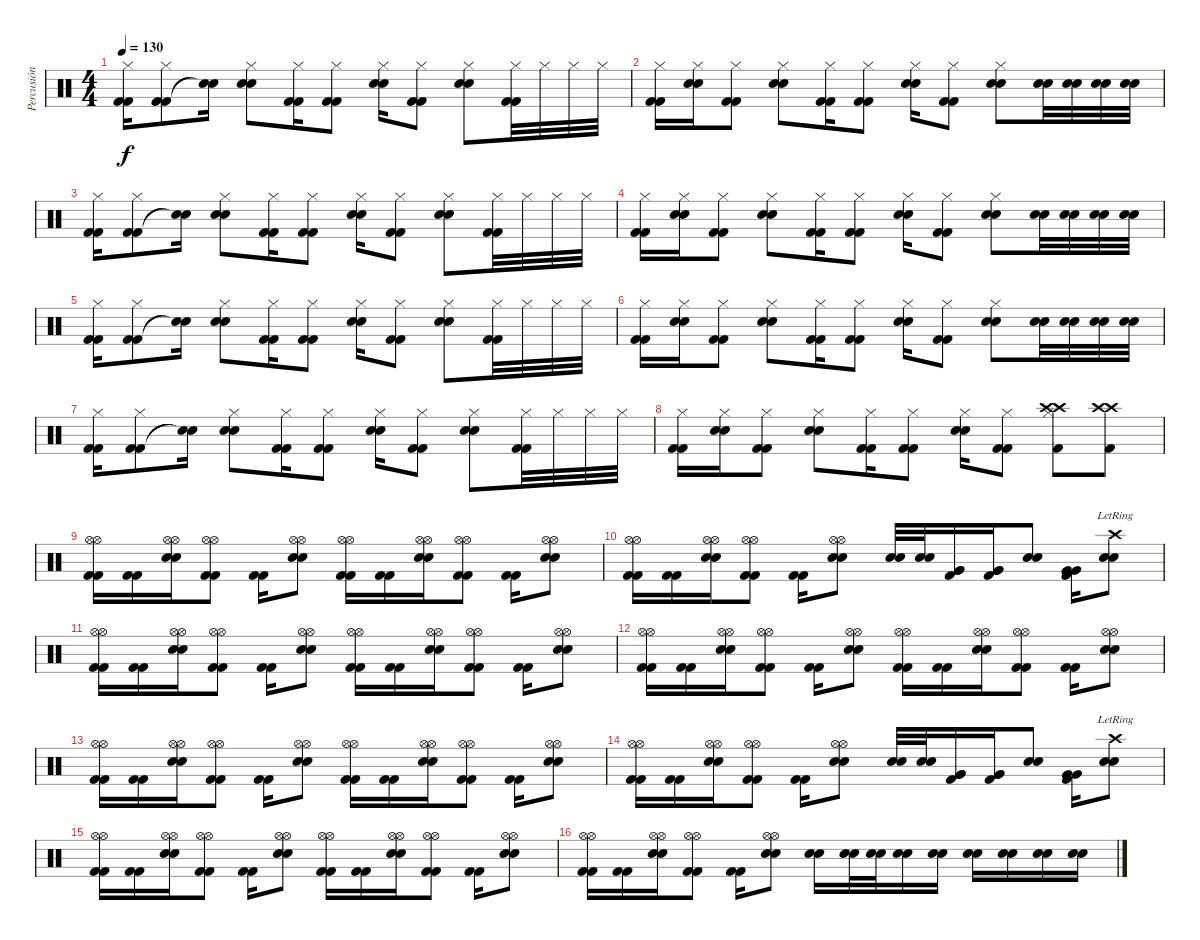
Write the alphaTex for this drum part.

\track ("Percusión" "Percusión") {instrument percussion}
\staff {score}
\articulation defaults
\ts (4 4)
\tempo 130
\clef neutral
\ks c
("Kick (hit) 2" "Kick (hit) 2" "Hi-Hat (closed)").16{dy f} ("Kick (hit) 2" "Kick (hit) 2" "Hi-Hat (closed)").8 ("Snare (hit) 2"{t} "Snare (hit) 2"{t}).16 ("Snare (hit) 2" "Snare (hit) 2" "Hi-Hat (closed)").8 ("Kick (hit) 2" "Kick (hit) 2" "Hi-Hat (closed)").16 ("Kick (hit) 2" "Kick (hit) 2" "Hi-Hat (closed)").8 ("Snare (hit) 2" "Snare (hit) 2" "Hi-Hat (closed)").16 ("Kick (hit) 2" "Kick (hit) 2" "Hi-Hat (closed)").8 ("Snare (hit) 2" "Snare (hit) 2" "Hi-Hat (closed)").8 ("Kick (hit) 2" "Kick (hit) 2" "Hi-Hat (closed)").32 "Hi-Hat (closed)".32 "Hi-Hat (closed)".32 "Hi-Hat (closed)".32 |
("Kick (hit) 2" "Kick (hit) 2" "Hi-Hat (closed)").16 ("Snare (hit) 2" "Snare (hit) 2" "Hi-Hat (closed)").16 ("Kick (hit) 2" "Kick (hit) 2" "Hi-Hat (closed)").8 ("Snare (hit) 2" "Snare (hit) 2" "Hi-Hat (closed)").8 ("Kick (hit) 2" "Kick (hit) 2" "Hi-Hat (closed)").16 ("Kick (hit) 2" "Kick (hit) 2" "Hi-Hat (closed)").8 ("Snare (hit) 2" "Snare (hit) 2" "Hi-Hat (closed)").16 ("Kick (hit) 2" "Kick (hit) 2" "Hi-Hat (closed)").8 ("Snare (hit) 2" "Snare (hit) 2" "Hi-Hat (closed)").8 ("Snare (hit) 2" "Snare (hit) 2").32 ("Snare (hit) 2" "Snare (hit) 2").32 ("Snare (hit) 2" "Snare (hit) 2").32 ("Snare (hit) 2" "Snare (hit) 2").32 |
("Kick (hit) 2" "Kick (hit) 2" "Hi-Hat (closed)").16 ("Kick (hit) 2" "Kick (hit) 2" "Hi-Hat (closed)").8 ("Snare (hit) 2"{t} "Snare (hit) 2"{t}).16 ("Snare (hit) 2" "Snare (hit) 2" "Hi-Hat (closed)").8 ("Kick (hit) 2" "Kick (hit) 2" "Hi-Hat (closed)").16 ("Kick (hit) 2" "Kick (hit) 2" "Hi-Hat (closed)").8 ("Snare (hit) 2" "Snare (hit) 2" "Hi-Hat (closed)").16 ("Kick (hit) 2" "Kick (hit) 2" "Hi-Hat (closed)").8 ("Snare (hit) 2" "Snare (hit) 2" "Hi-Hat (closed)").8 ("Kick (hit) 2" "Kick (hit) 2" "Hi-Hat (closed)").32 "Hi-Hat (closed)".32 "Hi-Hat (closed)".32 "Hi-Hat (closed)".32 |
("Kick (hit) 2" "Kick (hit) 2" "Hi-Hat (closed)").16 ("Snare (hit) 2" "Snare (hit) 2" "Hi-Hat (closed)").16 ("Kick (hit) 2" "Kick (hit) 2" "Hi-Hat (closed)").8 ("Snare (hit) 2" "Snare (hit) 2" "Hi-Hat (closed)").8 ("Kick (hit) 2" "Kick (hit) 2" "Hi-Hat (closed)").16 ("Kick (hit) 2" "Kick (hit) 2" "Hi-Hat (closed)").8 ("Snare (hit) 2" "Snare (hit) 2" "Hi-Hat (closed)").16 ("Kick (hit) 2" "Kick (hit) 2" "Hi-Hat (closed)").8 ("Snare (hit) 2" "Snare (hit) 2" "Hi-Hat (closed)").8 ("Snare (hit) 2" "Snare (hit) 2").32 ("Snare (hit) 2" "Snare (hit) 2").32 ("Snare (hit) 2" "Snare (hit) 2").32 ("Snare (hit) 2" "Snare (hit) 2").32 |
("Kick (hit) 2" "Kick (hit) 2" "Hi-Hat (closed)").16 ("Kick (hit) 2" "Kick (hit) 2" "Hi-Hat (closed)").8 ("Snare (hit) 2"{t} "Snare (hit) 2"{t}).16 ("Snare (hit) 2" "Snare (hit) 2" "Hi-Hat (closed)").8 ("Kick (hit) 2" "Kick (hit) 2" "Hi-Hat (closed)").16 ("Kick (hit) 2" "Kick (hit) 2" "Hi-Hat (closed)").8 ("Snare (hit) 2" "Snare (hit) 2" "Hi-Hat (closed)").16 ("Kick (hit) 2" "Kick (hit) 2" "Hi-Hat (closed)").8 ("Snare (hit) 2" "Snare (hit) 2" "Hi-Hat (closed)").8 ("Kick (hit) 2" "Kick (hit) 2" "Hi-Hat (closed)").32 "Hi-Hat (closed)".32 "Hi-Hat (closed)".32 "Hi-Hat (closed)".32 |
("Kick (hit) 2" "Kick (hit) 2" "Hi-Hat (closed)").16 ("Snare (hit) 2" "Snare (hit) 2" "Hi-Hat (closed)").16 ("Kick (hit) 2" "Kick (hit) 2" "Hi-Hat (closed)").8 ("Snare (hit) 2" "Snare (hit) 2" "Hi-Hat (closed)").8 ("Kick (hit) 2" "Kick (hit) 2" "Hi-Hat (closed)").16 ("Kick (hit) 2" "Kick (hit) 2" "Hi-Hat (closed)").8 ("Snare (hit) 2" "Snare (hit) 2" "Hi-Hat (closed)").16 ("Kick (hit) 2" "Kick (hit) 2" "Hi-Hat (closed)").8 ("Snare (hit) 2" "Snare (hit) 2" "Hi-Hat (closed)").8 ("Snare (hit) 2" "Snare (hit) 2").32 ("Snare (hit) 2" "Snare (hit) 2").32 ("Snare (hit) 2" "Snare (hit) 2").32 ("Snare (hit) 2" "Snare (hit) 2").32 |
("Kick (hit) 2" "Kick (hit) 2" "Hi-Hat (closed)").16 ("Kick (hit) 2" "Kick (hit) 2" "Hi-Hat (closed)").8 ("Snare (hit) 2"{t} "Snare (hit) 2"{t}).16 ("Snare (hit) 2" "Snare (hit) 2" "Hi-Hat (closed)").8 ("Kick (hit) 2" "Kick (hit) 2" "Hi-Hat (closed)").16 ("Kick (hit) 2" "Kick (hit) 2" "Hi-Hat (closed)").8 ("Snare (hit) 2" "Snare (hit) 2" "Hi-Hat (closed)").16 ("Kick (hit) 2" "Kick (hit) 2" "Hi-Hat (closed)").8 ("Snare (hit) 2" "Snare (hit) 2" "Hi-Hat (closed)").8 ("Kick (hit) 2" "Kick (hit) 2" "Hi-Hat (closed)").32 "Hi-Hat (closed)".32 "Hi-Hat (closed)".32 "Hi-Hat (closed)".32 |
("Kick (hit) 2" "Kick (hit) 2" "Hi-Hat (closed)").16 ("Snare (hit) 2" "Snare (hit) 2" "Hi-Hat (closed)").16 ("Kick (hit) 2" "Kick (hit) 2" "Hi-Hat (closed)").8 ("Snare (hit) 2" "Snare (hit) 2" "Hi-Hat (closed)").8 ("Kick (hit) 2" "Kick (hit) 2" "Hi-Hat (closed)").16 ("Kick (hit) 2" "Kick (hit) 2" "Hi-Hat (closed)").8 ("Snare (hit) 2" "Snare (hit) 2" "Hi-Hat (closed)").16 ("Kick (hit) 2" "Kick (hit) 2" "Hi-Hat (closed)").8 ("Crash high (hit)" "Crash high (hit)" "Hi-Hat (closed)" "Kick (hit) 2").8 ("Crash high (hit)" "Crash high (hit)" "Kick (hit) 2").8 |
("Kick (hit) 2" "Kick (hit) 2" "Hi-Hat (open)" "Hi-Hat (open)").16 ("Kick (hit) 2" "Kick (hit) 2").16 ("Snare (hit) 2" "Snare (hit) 2" "Hi-Hat (open)" "Hi-Hat (open)").16 ("Kick (hit) 2" "Kick (hit) 2" "Hi-Hat (open)" "Hi-Hat (open)").8 ("Kick (hit) 2" "Kick (hit) 2").16 ("Snare (hit) 2" "Snare (hit) 2" "Hi-Hat (open)" "Hi-Hat (open)").8 ("Kick (hit) 2" "Kick (hit) 2" "Hi-Hat (open)" "Hi-Hat (open)").16 ("Kick (hit) 2" "Kick (hit) 2").16 ("Snare (hit) 2" "Snare (hit) 2" "Hi-Hat (open)" "Hi-Hat (open)").16 ("Kick (hit) 2" "Kick (hit) 2" "Hi-Hat (open)" "Hi-Hat (open)").8 ("Kick (hit) 2" "Kick (hit) 2").16 ("Snare (hit) 2" "Snare (hit) 2" "Hi-Hat (open)" "Hi-Hat (open)").8 |
("Kick (hit) 2" "Kick (hit) 2" "Hi-Hat (open)" "Hi-Hat (open)").16 ("Kick (hit) 2" "Kick (hit) 2").16 ("Snare (hit) 2" "Snare (hit) 2" "Hi-Hat (open)" "Hi-Hat (open)").16 ("Kick (hit) 2" "Kick (hit) 2" "Hi-Hat (open)" "Hi-Hat (open)").8 ("Kick (hit) 2" "Kick (hit) 2").16 ("Snare (hit) 2" "Snare (hit) 2" "Hi-Hat (open)" "Hi-Hat (open)").8 ("Snare (hit) 2" "Snare (hit) 2").32 ("Snare (hit) 2" "Snare (hit) 2").32 ("Very Low Tom (hit)" "Very Low Tom (hit)" "Kick (hit) 2").16 ("Very Low Tom (hit)" "Very Low Tom (hit)" "Kick (hit) 2").16 ("Snare (hit) 2" "Snare (hit) 2").8 ("Very Low Tom (hit)" "Very Low Tom (hit)" "Kick (hit) 2").16 ("Snare (hit) 2" "Snare (hit) 2" "Crash high (hit)"{lr}).8 |
("Kick (hit) 2" "Kick (hit) 2" "Hi-Hat (open)" "Hi-Hat (open)").16 ("Kick (hit) 2" "Kick (hit) 2").16 ("Snare (hit) 2" "Snare (hit) 2" "Hi-Hat (open)" "Hi-Hat (open)").16 ("Kick (hit) 2" "Kick (hit) 2" "Hi-Hat (open)" "Hi-Hat (open)").8 ("Kick (hit) 2" "Kick (hit) 2").16 ("Snare (hit) 2" "Snare (hit) 2" "Hi-Hat (open)" "Hi-Hat (open)").8 ("Kick (hit) 2" "Kick (hit) 2" "Hi-Hat (open)" "Hi-Hat (open)").16 ("Kick (hit) 2" "Kick (hit) 2").16 ("Snare (hit) 2" "Snare (hit) 2" "Hi-Hat (open)" "Hi-Hat (open)").16 ("Kick (hit) 2" "Kick (hit) 2" "Hi-Hat (open)" "Hi-Hat (open)").8 ("Kick (hit) 2" "Kick (hit) 2").16 ("Snare (hit) 2" "Snare (hit) 2" "Hi-Hat (open)" "Hi-Hat (open)").8 |
("Kick (hit) 2" "Kick (hit) 2" "Hi-Hat (open)" "Hi-Hat (open)").16 ("Kick (hit) 2" "Kick (hit) 2").16 ("Snare (hit) 2" "Snare (hit) 2" "Hi-Hat (open)" "Hi-Hat (open)").16 ("Kick (hit) 2" "Kick (hit) 2" "Hi-Hat (open)" "Hi-Hat (open)").8 ("Kick (hit) 2" "Kick (hit) 2").16 ("Snare (hit) 2" "Snare (hit) 2" "Hi-Hat (open)" "Hi-Hat (open)").8 ("Kick (hit) 2" "Kick (hit) 2" "Hi-Hat (open)" "Hi-Hat (open)").16 ("Kick (hit) 2" "Kick (hit) 2").16 ("Snare (hit) 2" "Snare (hit) 2" "Hi-Hat (open)" "Hi-Hat (open)").16 ("Kick (hit) 2" "Kick (hit) 2" "Hi-Hat (open)" "Hi-Hat (open)").8 ("Kick (hit) 2" "Kick (hit) 2").16 ("Snare (hit) 2" "Snare (hit) 2" "Hi-Hat (open)" "Hi-Hat (open)").8 |
("Kick (hit) 2" "Kick (hit) 2" "Hi-Hat (open)" "Hi-Hat (open)").16 ("Kick (hit) 2" "Kick (hit) 2").16 ("Snare (hit) 2" "Snare (hit) 2" "Hi-Hat (open)" "Hi-Hat (open)").16 ("Kick (hit) 2" "Kick (hit) 2" "Hi-Hat (open)" "Hi-Hat (open)").8 ("Kick (hit) 2" "Kick (hit) 2").16 ("Snare (hit) 2" "Snare (hit) 2" "Hi-Hat (open)" "Hi-Hat (open)").8 ("Kick (hit) 2" "Kick (hit) 2" "Hi-Hat (open)" "Hi-Hat (open)").16 ("Kick (hit) 2" "Kick (hit) 2").16 ("Snare (hit) 2" "Snare (hit) 2" "Hi-Hat (open)" "Hi-Hat (open)").16 ("Kick (hit) 2" "Kick (hit) 2" "Hi-Hat (open)" "Hi-Hat (open)").8 ("Kick (hit) 2" "Kick (hit) 2").16 ("Snare (hit) 2" "Snare (hit) 2" "Hi-Hat (open)" "Hi-Hat (open)").8 |
("Kick (hit) 2" "Kick (hit) 2" "Hi-Hat (open)" "Hi-Hat (open)").16 ("Kick (hit) 2" "Kick (hit) 2").16 ("Snare (hit) 2" "Snare (hit) 2" "Hi-Hat (open)" "Hi-Hat (open)").16 ("Kick (hit) 2" "Kick (hit) 2" "Hi-Hat (open)" "Hi-Hat (open)").8 ("Kick (hit) 2" "Kick (hit) 2").16 ("Snare (hit) 2" "Snare (hit) 2" "Hi-Hat (open)" "Hi-Hat (open)").8 ("Snare (hit) 2" "Snare (hit) 2").32 ("Snare (hit) 2" "Snare (hit) 2").32 ("Very Low Tom (hit)" "Very Low Tom (hit)" "Kick (hit) 2").16 ("Very Low Tom (hit)" "Very Low Tom (hit)" "Kick (hit) 2").16 ("Snare (hit) 2" "Snare (hit) 2").8 ("Very Low Tom (hit)" "Very Low Tom (hit)" "Kick (hit) 2").16 ("Snare (hit) 2" "Snare (hit) 2" "Crash high (hit)"{lr}).8 |
("Kick (hit) 2" "Kick (hit) 2" "Hi-Hat (open)" "Hi-Hat (open)").16 ("Kick (hit) 2" "Kick (hit) 2").16 ("Snare (hit) 2" "Snare (hit) 2" "Hi-Hat (open)" "Hi-Hat (open)").16 ("Kick (hit) 2" "Kick (hit) 2" "Hi-Hat (open)" "Hi-Hat (open)").8 ("Kick (hit) 2" "Kick (hit) 2").16 ("Snare (hit) 2" "Snare (hit) 2" "Hi-Hat (open)" "Hi-Hat (open)").8 ("Kick (hit) 2" "Kick (hit) 2" "Hi-Hat (open)" "Hi-Hat (open)").16 ("Kick (hit) 2" "Kick (hit) 2").16 ("Snare (hit) 2" "Snare (hit) 2" "Hi-Hat (open)" "Hi-Hat (open)").16 ("Kick (hit) 2" "Kick (hit) 2" "Hi-Hat (open)" "Hi-Hat (open)").8 ("Kick (hit) 2" "Kick (hit) 2").16 ("Snare (hit) 2" "Snare (hit) 2" "Hi-Hat (open)" "Hi-Hat (open)").8 |
("Kick (hit) 2" "Kick (hit) 2" "Hi-Hat (open)" "Hi-Hat (open)").16 ("Kick (hit) 2" "Kick (hit) 2").16 ("Snare (hit) 2" "Snare (hit) 2" "Hi-Hat (open)" "Hi-Hat (open)").16 ("Kick (hit) 2" "Kick (hit) 2" "Hi-Hat (open)" "Hi-Hat (open)").8 ("Kick (hit) 2" "Kick (hit) 2").16 ("Snare (hit) 2" "Snare (hit) 2" "Hi-Hat (open)" "Hi-Hat (open)").8 ("Snare (hit) 2" "Snare (hit) 2").16 ("Snare (hit) 2" "Snare (hit) 2").32 ("Snare (hit) 2" "Snare (hit) 2").32 ("Snare (hit) 2" "Snare (hit) 2").16 ("Snare (hit) 2" "Snare (hit) 2").16 ("Snare (hit) 2" "Snare (hit) 2").16 ("Snare (hit) 2" "Snare (hit) 2").16 ("Snare (hit) 2" "Snare (hit) 2").16 ("Snare (hit) 2" "Snare (hit) 2").16
